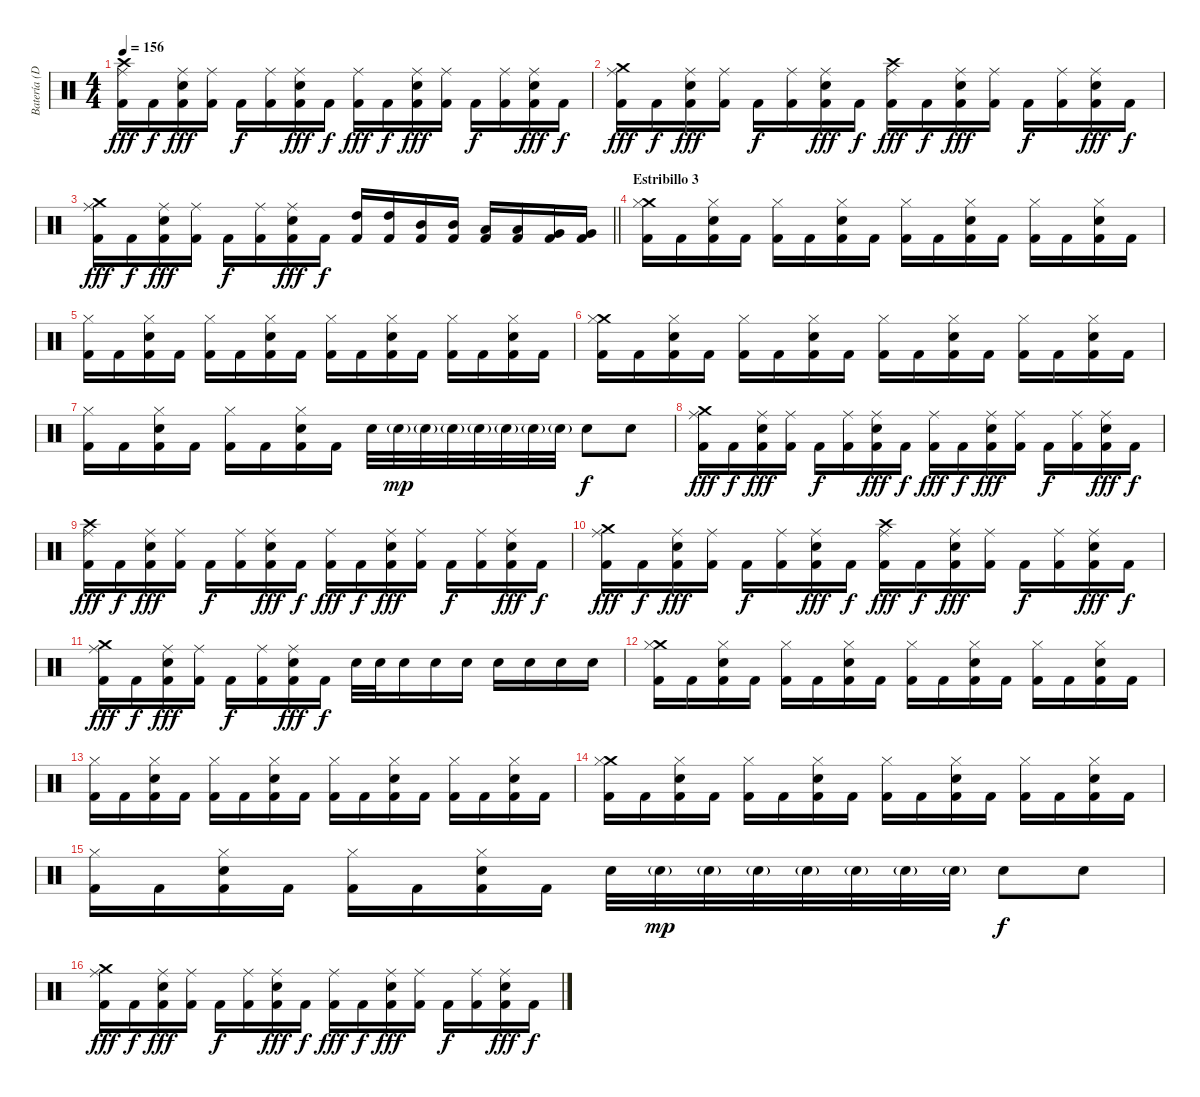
\track ("Batería (Dani)" "Batería (D") {instrument percussion}
\staff {score}
\articulation defaults
\ts (4 4)
\tempo 156
\clef neutral
\ks c
("Crash high (hit)" "Ride (middle)" "Kick (hit) 2").16{dy fff} "Kick (hit) 2".16{dy f} ("Ride (middle)" "Electric Snare (hit)" "Kick (hit) 2").16{dy fff} ("Ride (middle)" "Kick (hit) 2").16 "Kick (hit) 2".16{dy f} ("Ride (middle)" "Kick (hit) 2").16 ("Ride (middle)" "Electric Snare (hit)" "Kick (hit) 2").16{dy fff} "Kick (hit) 2".16{dy f} ("Ride (middle)" "Kick (hit) 2").16{dy fff} "Kick (hit) 2".16{dy f} ("Ride (middle)" "Electric Snare (hit)" "Kick (hit) 2").16{dy fff} ("Ride (middle)" "Kick (hit) 2").16 "Kick (hit) 2".16{dy f} ("Ride (middle)" "Kick (hit) 2").16 ("Ride (middle)" "Electric Snare (hit)" "Kick (hit) 2").16{dy fff} "Kick (hit) 2".16{dy f} |
("Crash medium (hit)" "Ride (middle)" "Kick (hit) 2").16{dy fff} "Kick (hit) 2".16{dy f} ("Ride (middle)" "Electric Snare (hit)" "Kick (hit) 2").16{dy fff} ("Ride (middle)" "Kick (hit) 2").16 "Kick (hit) 2".16{dy f} ("Ride (middle)" "Kick (hit) 2").16 ("Ride (middle)" "Electric Snare (hit)" "Kick (hit) 2").16{dy fff} "Kick (hit) 2".16{dy f} ("Crash high (hit)" "Ride (middle)" "Kick (hit) 2").16{dy fff} "Kick (hit) 2".16{dy f} ("Ride (middle)" "Electric Snare (hit)" "Kick (hit) 2").16{dy fff} ("Ride (middle)" "Kick (hit) 2").16 "Kick (hit) 2".16{dy f} ("Ride (middle)" "Kick (hit) 2").16 ("Ride (middle)" "Electric Snare (hit)" "Kick (hit) 2").16{dy fff} "Kick (hit) 2".16{dy f} |
\barLineRight lightlight
("Crash medium (hit)" "Ride (middle)" "Kick (hit) 2").16{dy fff} "Kick (hit) 2".16{dy f} ("Ride (middle)" "Electric Snare (hit)" "Kick (hit) 2").16{dy fff} ("Ride (middle)" "Kick (hit) 2").16 "Kick (hit) 2".16{dy f} ("Ride (middle)" "Kick (hit) 2").16 ("Ride (middle)" "Electric Snare (hit)" "Kick (hit) 2").16{dy fff} "Kick (hit) 2".16{dy f} ("High Tom (hit)" "Kick (hit) 2").16 ("High Tom (hit)" "Kick (hit) 2").16 ("Mid Tom (hit)" "Kick (hit) 2").16 ("Mid Tom (hit)" "Kick (hit) 2").16 ("Low Tom (hit)" "Kick (hit) 2").16 ("Low Tom (hit)" "Kick (hit) 2").16 ("Very Low Tom (hit)" "Kick (hit) 2").16 ("Very Low Tom (hit)" "Kick (hit) 2").16 |
\section ("" "Estribillo 3")
("Crash medium (hit)" "Hi-Hat (closed)" "Kick (hit) 2").16 "Kick (hit) 2".16 ("Hi-Hat (closed)" "Electric Snare (hit)" "Kick (hit) 2").16 "Kick (hit) 2".16 ("Hi-Hat (closed)" "Kick (hit) 2").16 "Kick (hit) 2".16 ("Hi-Hat (closed)" "Electric Snare (hit)" "Kick (hit) 2").16 "Kick (hit) 2".16 ("Hi-Hat (closed)" "Kick (hit) 2").16 "Kick (hit) 2".16 ("Hi-Hat (closed)" "Electric Snare (hit)" "Kick (hit) 2").16 "Kick (hit) 2".16 ("Hi-Hat (closed)" "Kick (hit) 2").16 "Kick (hit) 2".16 ("Hi-Hat (closed)" "Electric Snare (hit)" "Kick (hit) 2").16 "Kick (hit) 2".16 |
("Hi-Hat (closed)" "Kick (hit) 2").16 "Kick (hit) 2".16 ("Hi-Hat (closed)" "Electric Snare (hit)" "Kick (hit) 2").16 "Kick (hit) 2".16 ("Hi-Hat (closed)" "Kick (hit) 2").16 "Kick (hit) 2".16 ("Hi-Hat (closed)" "Electric Snare (hit)" "Kick (hit) 2").16 "Kick (hit) 2".16 ("Hi-Hat (closed)" "Kick (hit) 2").16 "Kick (hit) 2".16 ("Hi-Hat (closed)" "Electric Snare (hit)" "Kick (hit) 2").16 "Kick (hit) 2".16 ("Hi-Hat (closed)" "Kick (hit) 2").16 "Kick (hit) 2".16 ("Hi-Hat (closed)" "Electric Snare (hit)" "Kick (hit) 2").16 "Kick (hit) 2".16 |
("Crash medium (hit)" "Hi-Hat (closed)" "Kick (hit) 2").16 "Kick (hit) 2".16 ("Hi-Hat (closed)" "Electric Snare (hit)" "Kick (hit) 2").16 "Kick (hit) 2".16 ("Hi-Hat (closed)" "Kick (hit) 2").16 "Kick (hit) 2".16 ("Hi-Hat (closed)" "Electric Snare (hit)" "Kick (hit) 2").16 "Kick (hit) 2".16 ("Hi-Hat (closed)" "Kick (hit) 2").16 "Kick (hit) 2".16 ("Hi-Hat (closed)" "Electric Snare (hit)" "Kick (hit) 2").16 "Kick (hit) 2".16 ("Hi-Hat (closed)" "Kick (hit) 2").16 "Kick (hit) 2".16 ("Hi-Hat (closed)" "Electric Snare (hit)" "Kick (hit) 2").16 "Kick (hit) 2".16 |
("Hi-Hat (closed)" "Kick (hit) 2").16 "Kick (hit) 2".16 ("Hi-Hat (closed)" "Electric Snare (hit)" "Kick (hit) 2").16 "Kick (hit) 2".16 ("Hi-Hat (closed)" "Kick (hit) 2").16 "Kick (hit) 2".16 ("Hi-Hat (closed)" "Electric Snare (hit)" "Kick (hit) 2").16 "Kick (hit) 2".16 "Electric Snare (hit)".32 "Electric Snare (hit)"{g}.32{dy mp} "Electric Snare (hit)"{g}.32 "Electric Snare (hit)"{g}.32 "Electric Snare (hit)"{g}.32 "Electric Snare (hit)"{g}.32 "Electric Snare (hit)"{g}.32 "Electric Snare (hit)"{g}.32 "Electric Snare (hit)".8{dy f} "Electric Snare (hit)".8 |
("Crash medium (hit)" "Ride (middle)" "Kick (hit) 2").16{dy fff} "Kick (hit) 2".16{dy f} ("Ride (middle)" "Electric Snare (hit)" "Kick (hit) 2").16{dy fff} ("Ride (middle)" "Kick (hit) 2").16 "Kick (hit) 2".16{dy f} ("Ride (middle)" "Kick (hit) 2").16 ("Ride (middle)" "Electric Snare (hit)" "Kick (hit) 2").16{dy fff} "Kick (hit) 2".16{dy f} ("Ride (middle)" "Kick (hit) 2").16{dy fff} "Kick (hit) 2".16{dy f} ("Ride (middle)" "Electric Snare (hit)" "Kick (hit) 2").16{dy fff} ("Ride (middle)" "Kick (hit) 2").16 "Kick (hit) 2".16{dy f} ("Ride (middle)" "Kick (hit) 2").16 ("Ride (middle)" "Electric Snare (hit)" "Kick (hit) 2").16{dy fff} "Kick (hit) 2".16{dy f} |
("Crash high (hit)" "Ride (middle)" "Kick (hit) 2").16{dy fff} "Kick (hit) 2".16{dy f} ("Ride (middle)" "Electric Snare (hit)" "Kick (hit) 2").16{dy fff} ("Ride (middle)" "Kick (hit) 2").16 "Kick (hit) 2".16{dy f} ("Ride (middle)" "Kick (hit) 2").16 ("Ride (middle)" "Electric Snare (hit)" "Kick (hit) 2").16{dy fff} "Kick (hit) 2".16{dy f} ("Ride (middle)" "Kick (hit) 2").16{dy fff} "Kick (hit) 2".16{dy f} ("Ride (middle)" "Electric Snare (hit)" "Kick (hit) 2").16{dy fff} ("Ride (middle)" "Kick (hit) 2").16 "Kick (hit) 2".16{dy f} ("Ride (middle)" "Kick (hit) 2").16 ("Ride (middle)" "Electric Snare (hit)" "Kick (hit) 2").16{dy fff} "Kick (hit) 2".16{dy f} |
("Crash medium (hit)" "Ride (middle)" "Kick (hit) 2").16{dy fff} "Kick (hit) 2".16{dy f} ("Ride (middle)" "Electric Snare (hit)" "Kick (hit) 2").16{dy fff} ("Ride (middle)" "Kick (hit) 2").16 "Kick (hit) 2".16{dy f} ("Ride (middle)" "Kick (hit) 2").16 ("Ride (middle)" "Electric Snare (hit)" "Kick (hit) 2").16{dy fff} "Kick (hit) 2".16{dy f} ("Crash high (hit)" "Ride (middle)" "Kick (hit) 2").16{dy fff} "Kick (hit) 2".16{dy f} ("Ride (middle)" "Electric Snare (hit)" "Kick (hit) 2").16{dy fff} ("Ride (middle)" "Kick (hit) 2").16 "Kick (hit) 2".16{dy f} ("Ride (middle)" "Kick (hit) 2").16 ("Ride (middle)" "Electric Snare (hit)" "Kick (hit) 2").16{dy fff} "Kick (hit) 2".16{dy f} |
("Crash medium (hit)" "Ride (middle)" "Kick (hit) 2").16{dy fff} "Kick (hit) 2".16{dy f} ("Ride (middle)" "Electric Snare (hit)" "Kick (hit) 2").16{dy fff} ("Ride (middle)" "Kick (hit) 2").16 "Kick (hit) 2".16{dy f} ("Ride (middle)" "Kick (hit) 2").16 ("Ride (middle)" "Electric Snare (hit)" "Kick (hit) 2").16{dy fff} "Kick (hit) 2".16{dy f} "Electric Snare (hit)".32 "Electric Snare (hit)".32 "Electric Snare (hit)".16 "Electric Snare (hit)".16 "Electric Snare (hit)".16 "Electric Snare (hit)".16 "Electric Snare (hit)".16 "Electric Snare (hit)".16 "Electric Snare (hit)".16 |
("Crash medium (hit)" "Hi-Hat (closed)" "Kick (hit) 2").16 "Kick (hit) 2".16 ("Hi-Hat (closed)" "Electric Snare (hit)" "Kick (hit) 2").16 "Kick (hit) 2".16 ("Hi-Hat (closed)" "Kick (hit) 2").16 "Kick (hit) 2".16 ("Hi-Hat (closed)" "Electric Snare (hit)" "Kick (hit) 2").16 "Kick (hit) 2".16 ("Hi-Hat (closed)" "Kick (hit) 2").16 "Kick (hit) 2".16 ("Hi-Hat (closed)" "Electric Snare (hit)" "Kick (hit) 2").16 "Kick (hit) 2".16 ("Hi-Hat (closed)" "Kick (hit) 2").16 "Kick (hit) 2".16 ("Hi-Hat (closed)" "Electric Snare (hit)" "Kick (hit) 2").16 "Kick (hit) 2".16 |
("Hi-Hat (closed)" "Kick (hit) 2").16 "Kick (hit) 2".16 ("Hi-Hat (closed)" "Electric Snare (hit)" "Kick (hit) 2").16 "Kick (hit) 2".16 ("Hi-Hat (closed)" "Kick (hit) 2").16 "Kick (hit) 2".16 ("Hi-Hat (closed)" "Electric Snare (hit)" "Kick (hit) 2").16 "Kick (hit) 2".16 ("Hi-Hat (closed)" "Kick (hit) 2").16 "Kick (hit) 2".16 ("Hi-Hat (closed)" "Electric Snare (hit)" "Kick (hit) 2").16 "Kick (hit) 2".16 ("Hi-Hat (closed)" "Kick (hit) 2").16 "Kick (hit) 2".16 ("Hi-Hat (closed)" "Electric Snare (hit)" "Kick (hit) 2").16 "Kick (hit) 2".16 |
("Crash medium (hit)" "Hi-Hat (closed)" "Kick (hit) 2").16 "Kick (hit) 2".16 ("Hi-Hat (closed)" "Electric Snare (hit)" "Kick (hit) 2").16 "Kick (hit) 2".16 ("Hi-Hat (closed)" "Kick (hit) 2").16 "Kick (hit) 2".16 ("Hi-Hat (closed)" "Electric Snare (hit)" "Kick (hit) 2").16 "Kick (hit) 2".16 ("Hi-Hat (closed)" "Kick (hit) 2").16 "Kick (hit) 2".16 ("Hi-Hat (closed)" "Electric Snare (hit)" "Kick (hit) 2").16 "Kick (hit) 2".16 ("Hi-Hat (closed)" "Kick (hit) 2").16 "Kick (hit) 2".16 ("Hi-Hat (closed)" "Electric Snare (hit)" "Kick (hit) 2").16 "Kick (hit) 2".16 |
("Hi-Hat (closed)" "Kick (hit) 2").16 "Kick (hit) 2".16 ("Hi-Hat (closed)" "Electric Snare (hit)" "Kick (hit) 2").16 "Kick (hit) 2".16 ("Hi-Hat (closed)" "Kick (hit) 2").16 "Kick (hit) 2".16 ("Hi-Hat (closed)" "Electric Snare (hit)" "Kick (hit) 2").16 "Kick (hit) 2".16 "Electric Snare (hit)".32 "Electric Snare (hit)"{g}.32{dy mp} "Electric Snare (hit)"{g}.32 "Electric Snare (hit)"{g}.32 "Electric Snare (hit)"{g}.32 "Electric Snare (hit)"{g}.32 "Electric Snare (hit)"{g}.32 "Electric Snare (hit)"{g}.32 "Electric Snare (hit)".8{dy f} "Electric Snare (hit)".8 |
("Crash medium (hit)" "Ride (middle)" "Kick (hit) 2").16{dy fff} "Kick (hit) 2".16{dy f} ("Ride (middle)" "Electric Snare (hit)" "Kick (hit) 2").16{dy fff} ("Ride (middle)" "Kick (hit) 2").16 "Kick (hit) 2".16{dy f} ("Ride (middle)" "Kick (hit) 2").16 ("Ride (middle)" "Electric Snare (hit)" "Kick (hit) 2").16{dy fff} "Kick (hit) 2".16{dy f} ("Ride (middle)" "Kick (hit) 2").16{dy fff} "Kick (hit) 2".16{dy f} ("Ride (middle)" "Electric Snare (hit)" "Kick (hit) 2").16{dy fff} ("Ride (middle)" "Kick (hit) 2").16 "Kick (hit) 2".16{dy f} ("Ride (middle)" "Kick (hit) 2").16 ("Ride (middle)" "Electric Snare (hit)" "Kick (hit) 2").16{dy fff} "Kick (hit) 2".16{dy f}
